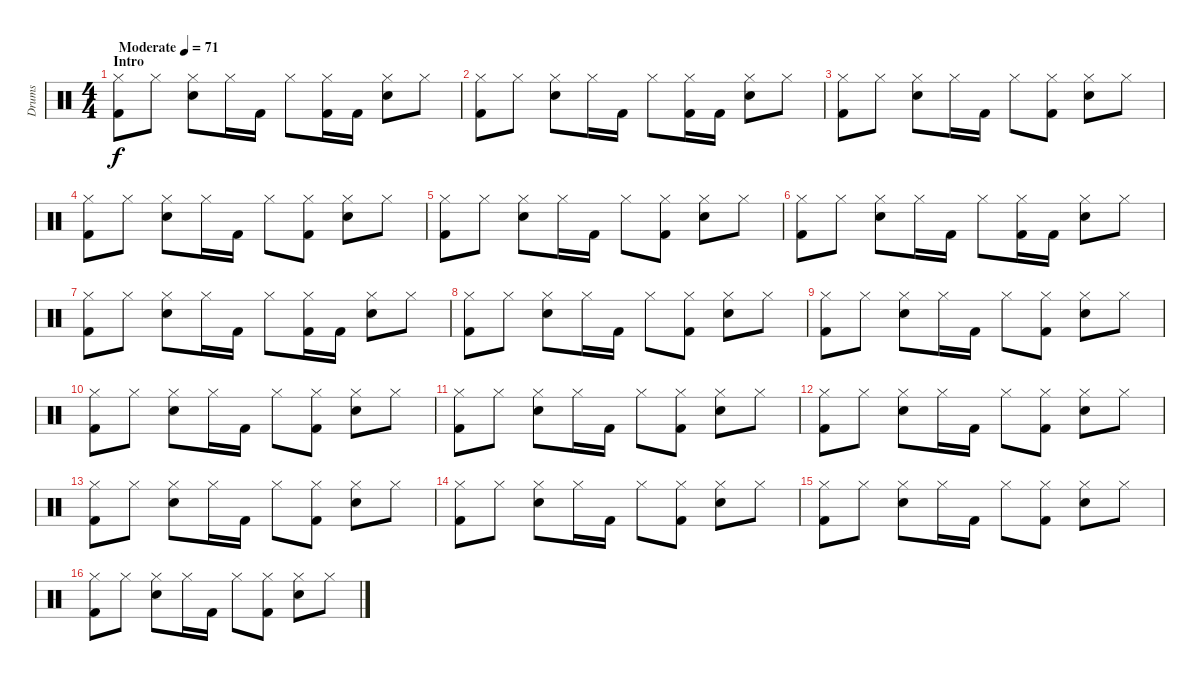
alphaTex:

\track ("Drums" "Drums") {instrument percussion}
\staff {score}
\articulation defaults
\ts (4 4)
\section ("" "Intro")
\tempo (71 "Moderate")
\clef neutral
\ks c
("Hi-Hat (closed)" "Kick (hit) 2").8{dy f} "Hi-Hat (closed)".8 ("Hi-Hat (closed)" "Snare (hit) 2").8 "Hi-Hat (closed)".16 "Kick (hit) 2".16 "Hi-Hat (closed)".8 ("Kick (hit) 2" "Hi-Hat (closed)").16 "Kick (hit) 2".16 ("Hi-Hat (closed)" "Snare (hit) 2").8 "Hi-Hat (closed)".8 |
("Hi-Hat (closed)" "Kick (hit) 2").8 "Hi-Hat (closed)".8 ("Hi-Hat (closed)" "Snare (hit) 2").8 "Hi-Hat (closed)".16 "Kick (hit) 2".16 "Hi-Hat (closed)".8 ("Kick (hit) 2" "Hi-Hat (closed)").16 "Kick (hit) 2".16 ("Hi-Hat (closed)" "Snare (hit) 2").8 "Hi-Hat (closed)".8 |
("Hi-Hat (closed)" "Kick (hit) 2").8 "Hi-Hat (closed)".8 ("Hi-Hat (closed)" "Snare (hit) 2").8 "Hi-Hat (closed)".16 "Kick (hit) 2".16 "Hi-Hat (closed)".8 ("Kick (hit) 2" "Hi-Hat (closed)").8 ("Hi-Hat (closed)" "Snare (hit) 2").8 "Hi-Hat (closed)".8 |
("Hi-Hat (closed)" "Kick (hit) 2").8 "Hi-Hat (closed)".8 ("Hi-Hat (closed)" "Snare (hit) 2").8 "Hi-Hat (closed)".16 "Kick (hit) 2".16 "Hi-Hat (closed)".8 ("Kick (hit) 2" "Hi-Hat (closed)").8 ("Hi-Hat (closed)" "Snare (hit) 2").8 "Hi-Hat (closed)".8 |
("Hi-Hat (closed)" "Kick (hit) 2").8 "Hi-Hat (closed)".8 ("Hi-Hat (closed)" "Snare (hit) 2").8 "Hi-Hat (closed)".16 "Kick (hit) 2".16 "Hi-Hat (closed)".8 ("Kick (hit) 2" "Hi-Hat (closed)").8 ("Hi-Hat (closed)" "Snare (hit) 2").8 "Hi-Hat (closed)".8 |
("Hi-Hat (closed)" "Kick (hit) 2").8 "Hi-Hat (closed)".8 ("Hi-Hat (closed)" "Snare (hit) 2").8 "Hi-Hat (closed)".16 "Kick (hit) 2".16 "Hi-Hat (closed)".8 ("Kick (hit) 2" "Hi-Hat (closed)").16 "Kick (hit) 2".16 ("Hi-Hat (closed)" "Snare (hit) 2").8 "Hi-Hat (closed)".8 |
("Hi-Hat (closed)" "Kick (hit) 2").8 "Hi-Hat (closed)".8 ("Hi-Hat (closed)" "Snare (hit) 2").8 "Hi-Hat (closed)".16 "Kick (hit) 2".16 "Hi-Hat (closed)".8 ("Kick (hit) 2" "Hi-Hat (closed)").16 "Kick (hit) 2".16 ("Hi-Hat (closed)" "Snare (hit) 2").8 "Hi-Hat (closed)".8 |
("Hi-Hat (closed)" "Kick (hit) 2").8 "Hi-Hat (closed)".8 ("Hi-Hat (closed)" "Snare (hit) 2").8 "Hi-Hat (closed)".16 "Kick (hit) 2".16 "Hi-Hat (closed)".8 ("Kick (hit) 2" "Hi-Hat (closed)").8 ("Hi-Hat (closed)" "Snare (hit) 2").8 "Hi-Hat (closed)".8 |
("Hi-Hat (closed)" "Kick (hit) 2").8 "Hi-Hat (closed)".8 ("Hi-Hat (closed)" "Snare (hit) 2").8 "Hi-Hat (closed)".16 "Kick (hit) 2".16 "Hi-Hat (closed)".8 ("Kick (hit) 2" "Hi-Hat (closed)").8 ("Hi-Hat (closed)" "Snare (hit) 2").8 "Hi-Hat (closed)".8 |
("Hi-Hat (closed)" "Kick (hit) 2").8 "Hi-Hat (closed)".8 ("Hi-Hat (closed)" "Snare (hit) 2").8 "Hi-Hat (closed)".16 "Kick (hit) 2".16 "Hi-Hat (closed)".8 ("Kick (hit) 2" "Hi-Hat (closed)").8 ("Hi-Hat (closed)" "Snare (hit) 2").8 "Hi-Hat (closed)".8 |
("Hi-Hat (closed)" "Kick (hit) 2").8 "Hi-Hat (closed)".8 ("Hi-Hat (closed)" "Snare (hit) 2").8 "Hi-Hat (closed)".16 "Kick (hit) 2".16 "Hi-Hat (closed)".8 ("Kick (hit) 2" "Hi-Hat (closed)").8 ("Hi-Hat (closed)" "Snare (hit) 2").8 "Hi-Hat (closed)".8 |
("Hi-Hat (closed)" "Kick (hit) 2").8 "Hi-Hat (closed)".8 ("Hi-Hat (closed)" "Snare (hit) 2").8 "Hi-Hat (closed)".16 "Kick (hit) 2".16 "Hi-Hat (closed)".8 ("Kick (hit) 2" "Hi-Hat (closed)").8 ("Hi-Hat (closed)" "Snare (hit) 2").8 "Hi-Hat (closed)".8 |
("Hi-Hat (closed)" "Kick (hit) 2").8 "Hi-Hat (closed)".8 ("Hi-Hat (closed)" "Snare (hit) 2").8 "Hi-Hat (closed)".16 "Kick (hit) 2".16 "Hi-Hat (closed)".8 ("Kick (hit) 2" "Hi-Hat (closed)").8 ("Hi-Hat (closed)" "Snare (hit) 2").8 "Hi-Hat (closed)".8 |
("Hi-Hat (closed)" "Kick (hit) 2").8 "Hi-Hat (closed)".8 ("Hi-Hat (closed)" "Snare (hit) 2").8 "Hi-Hat (closed)".16 "Kick (hit) 2".16 "Hi-Hat (closed)".8 ("Kick (hit) 2" "Hi-Hat (closed)").8 ("Hi-Hat (closed)" "Snare (hit) 2").8 "Hi-Hat (closed)".8 |
("Hi-Hat (closed)" "Kick (hit) 2").8 "Hi-Hat (closed)".8 ("Hi-Hat (closed)" "Snare (hit) 2").8 "Hi-Hat (closed)".16 "Kick (hit) 2".16 "Hi-Hat (closed)".8 ("Kick (hit) 2" "Hi-Hat (closed)").8 ("Hi-Hat (closed)" "Snare (hit) 2").8 "Hi-Hat (closed)".8 |
("Hi-Hat (closed)" "Kick (hit) 2").8 "Hi-Hat (closed)".8 ("Hi-Hat (closed)" "Snare (hit) 2").8 "Hi-Hat (closed)".16 "Kick (hit) 2".16 "Hi-Hat (closed)".8 ("Kick (hit) 2" "Hi-Hat (closed)").8 ("Hi-Hat (closed)" "Snare (hit) 2").8 "Hi-Hat (closed)".8
